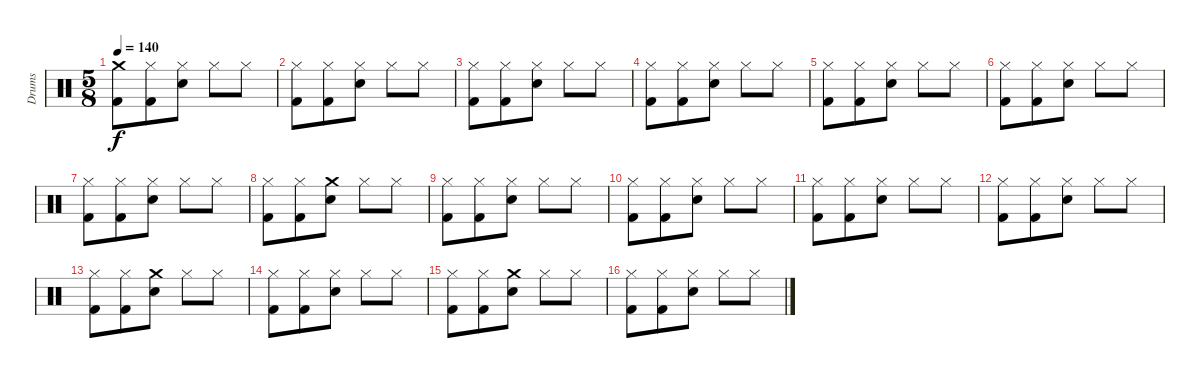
\track ("Drums" "Drums") {instrument percussion}
\staff {score}
\articulation defaults
\ts (5 8)
\tempo 140
\clef neutral
\ks c
("Crash medium (hit)" "Kick (hit) 2").8{dy f} ("Hi-Hat (closed)" "Kick (hit) 2").8 ("Hi-Hat (closed)" "Electric Snare (hit)").8 "Hi-Hat (closed)".8 "Hi-Hat (closed)".8 |
("Hi-Hat (closed)" "Kick (hit) 2").8 ("Hi-Hat (closed)" "Kick (hit) 2").8 ("Hi-Hat (closed)" "Electric Snare (hit)").8 "Hi-Hat (closed)".8 "Hi-Hat (closed)".8 |
("Hi-Hat (closed)" "Kick (hit) 2").8 ("Hi-Hat (closed)" "Kick (hit) 2").8 ("Hi-Hat (closed)" "Electric Snare (hit)").8 "Hi-Hat (closed)".8 "Hi-Hat (closed)".8 |
("Hi-Hat (closed)" "Kick (hit) 2").8 ("Hi-Hat (closed)" "Kick (hit) 2").8 ("Hi-Hat (closed)" "Electric Snare (hit)").8 "Hi-Hat (closed)".8 "Hi-Hat (closed)".8 |
("Hi-Hat (closed)" "Kick (hit) 2").8 ("Hi-Hat (closed)" "Kick (hit) 2").8 ("Hi-Hat (closed)" "Electric Snare (hit)").8 "Hi-Hat (closed)".8 "Hi-Hat (closed)".8 |
("Hi-Hat (closed)" "Kick (hit) 2").8 ("Hi-Hat (closed)" "Kick (hit) 2").8 ("Hi-Hat (closed)" "Electric Snare (hit)").8 "Hi-Hat (closed)".8 "Hi-Hat (closed)".8 |
("Hi-Hat (closed)" "Kick (hit) 2").8 ("Hi-Hat (closed)" "Kick (hit) 2").8 ("Hi-Hat (closed)" "Electric Snare (hit)").8 "Hi-Hat (closed)".8 "Hi-Hat (closed)".8 |
("Hi-Hat (closed)" "Kick (hit) 2").8 ("Hi-Hat (closed)" "Kick (hit) 2").8 ("Crash medium (hit)" "Electric Snare (hit)").8 "Hi-Hat (closed)".8 "Hi-Hat (closed)".8 |
("Hi-Hat (closed)" "Kick (hit) 2").8 ("Hi-Hat (closed)" "Kick (hit) 2").8 ("Hi-Hat (closed)" "Electric Snare (hit)").8 "Hi-Hat (closed)".8 "Hi-Hat (closed)".8 |
("Hi-Hat (closed)" "Kick (hit) 2").8 ("Hi-Hat (closed)" "Kick (hit) 2").8 ("Hi-Hat (closed)" "Electric Snare (hit)").8 "Hi-Hat (closed)".8 "Hi-Hat (closed)".8 |
("Hi-Hat (closed)" "Kick (hit) 2").8 ("Hi-Hat (closed)" "Kick (hit) 2").8 ("Hi-Hat (closed)" "Electric Snare (hit)").8 "Hi-Hat (closed)".8 "Hi-Hat (closed)".8 |
("Hi-Hat (closed)" "Kick (hit) 2").8 ("Hi-Hat (closed)" "Kick (hit) 2").8 ("Hi-Hat (closed)" "Electric Snare (hit)").8 "Hi-Hat (closed)".8 "Hi-Hat (closed)".8 |
("Hi-Hat (closed)" "Kick (hit) 2").8 ("Hi-Hat (closed)" "Kick (hit) 2").8 ("Crash medium (hit)" "Electric Snare (hit)").8 "Hi-Hat (closed)".8 "Hi-Hat (closed)".8 |
("Hi-Hat (closed)" "Kick (hit) 2").8 ("Hi-Hat (closed)" "Kick (hit) 2").8 ("Hi-Hat (closed)" "Electric Snare (hit)").8 "Hi-Hat (closed)".8 "Hi-Hat (closed)".8 |
("Hi-Hat (closed)" "Kick (hit) 2").8 ("Hi-Hat (closed)" "Kick (hit) 2").8 ("Crash medium (hit)" "Electric Snare (hit)").8 "Hi-Hat (closed)".8 "Hi-Hat (closed)".8 |
("Hi-Hat (closed)" "Kick (hit) 2").8 ("Hi-Hat (closed)" "Kick (hit) 2").8 ("Hi-Hat (closed)" "Electric Snare (hit)").8 "Hi-Hat (closed)".8 "Hi-Hat (closed)".8
